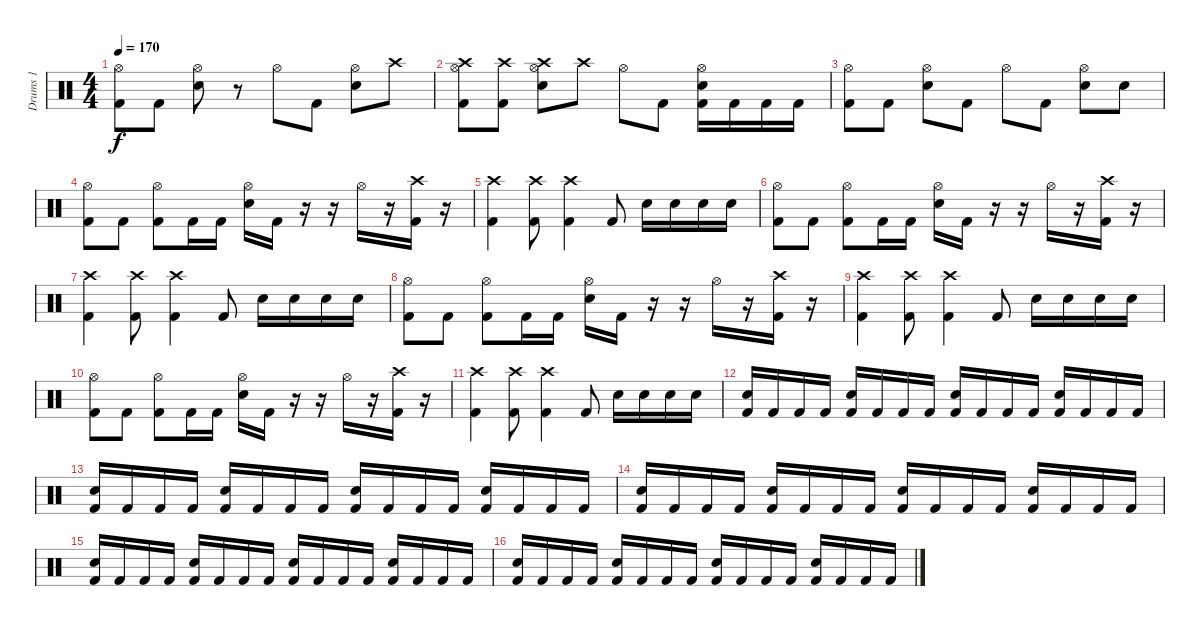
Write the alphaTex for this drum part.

\track ("Drums 1" "Drums 1") {instrument percussion}
\staff {score}
\articulation defaults
\ts (4 4)
\tempo 170
\clef neutral
\ks c
("Hi-Hat (open)" "Kick (hit) 2").8{dy f} "Kick (hit) 2".8 ("Hi-Hat (open)" "Electric Snare (hit)").8 r.8 "Hi-Hat (open)".8 "Kick (hit) 2".8 ("Hi-Hat (open)" "Electric Snare (hit)").8 "Crash high (hit)".8 |
("Crash high (hit)" "Hi-Hat (open)" "Kick (hit) 2").8 ("Crash high (hit)" "Kick (hit) 2").8 ("Crash high (hit)" "Hi-Hat (open)" "Electric Snare (hit)").8 "Crash high (hit)".8 "Hi-Hat (open)".8 "Kick (hit) 2".8 ("Hi-Hat (open)" "Electric Snare (hit)" "Kick (hit) 2").16 "Kick (hit) 2".16 "Kick (hit) 2".16 "Kick (hit) 2".16 |
("Hi-Hat (open)" "Kick (hit) 2").8 "Kick (hit) 2".8 ("Hi-Hat (open)" "Electric Snare (hit)").8 "Kick (hit) 2".8 "Hi-Hat (open)".8 "Kick (hit) 2".8 ("Hi-Hat (open)" "Electric Snare (hit)").8 "Electric Snare (hit)".8 |
("Hi-Hat (open)" "Kick (hit) 2").8 "Kick (hit) 2".8 ("Hi-Hat (open)" "Kick (hit) 2").8 "Kick (hit) 2".16 "Kick (hit) 2".16 ("Hi-Hat (open)" "Electric Snare (hit)").16 "Kick (hit) 2".16 r.16 r.16 "Hi-Hat (open)".16 r.16 ("Crash high (hit)" "Kick (hit) 2").16 r.16 |
("Crash high (hit)" "Kick (hit) 2").4 ("Crash high (hit)" "Kick (hit) 2").8 ("Crash high (hit)" "Kick (hit) 2").4 "Kick (hit) 2".8 "Electric Snare (hit)".16 "Electric Snare (hit)".16 "Electric Snare (hit)".16 "Electric Snare (hit)".16 |
("Hi-Hat (open)" "Kick (hit) 2").8 "Kick (hit) 2".8 ("Hi-Hat (open)" "Kick (hit) 2").8 "Kick (hit) 2".16 "Kick (hit) 2".16 ("Hi-Hat (open)" "Electric Snare (hit)").16 "Kick (hit) 2".16 r.16 r.16 "Hi-Hat (open)".16 r.16 ("Crash high (hit)" "Kick (hit) 2").16 r.16 |
("Crash high (hit)" "Kick (hit) 2").4 ("Crash high (hit)" "Kick (hit) 2").8 ("Crash high (hit)" "Kick (hit) 2").4 "Kick (hit) 2".8 "Electric Snare (hit)".16 "Electric Snare (hit)".16 "Electric Snare (hit)".16 "Electric Snare (hit)".16 |
("Hi-Hat (open)" "Kick (hit) 2").8 "Kick (hit) 2".8 ("Hi-Hat (open)" "Kick (hit) 2").8 "Kick (hit) 2".16 "Kick (hit) 2".16 ("Hi-Hat (open)" "Electric Snare (hit)").16 "Kick (hit) 2".16 r.16 r.16 "Hi-Hat (open)".16 r.16 ("Crash high (hit)" "Kick (hit) 2").16 r.16 |
("Crash high (hit)" "Kick (hit) 2").4 ("Crash high (hit)" "Kick (hit) 2").8 ("Crash high (hit)" "Kick (hit) 2").4 "Kick (hit) 2".8 "Electric Snare (hit)".16 "Electric Snare (hit)".16 "Electric Snare (hit)".16 "Electric Snare (hit)".16 |
("Hi-Hat (open)" "Kick (hit) 2").8 "Kick (hit) 2".8 ("Hi-Hat (open)" "Kick (hit) 2").8 "Kick (hit) 2".16 "Kick (hit) 2".16 ("Hi-Hat (open)" "Electric Snare (hit)").16 "Kick (hit) 2".16 r.16 r.16 "Hi-Hat (open)".16 r.16 ("Crash high (hit)" "Kick (hit) 2").16 r.16 |
("Crash high (hit)" "Kick (hit) 2").4 ("Crash high (hit)" "Kick (hit) 2").8 ("Crash high (hit)" "Kick (hit) 2").4 "Kick (hit) 2".8 "Electric Snare (hit)".16 "Electric Snare (hit)".16 "Electric Snare (hit)".16 "Electric Snare (hit)".16 |
("Snare (hit) 2" "Kick (hit) 2").16 "Kick (hit) 2".16 "Kick (hit) 2".16 "Kick (hit) 2".16 ("Snare (hit) 2" "Kick (hit) 2").16 "Kick (hit) 2".16 "Kick (hit) 2".16 "Kick (hit) 2".16 ("Snare (hit) 2" "Kick (hit) 2").16 "Kick (hit) 2".16 "Kick (hit) 2".16 "Kick (hit) 2".16 ("Snare (hit) 2" "Kick (hit) 2").16 "Kick (hit) 2".16 "Kick (hit) 2".16 "Kick (hit) 2".16 |
("Snare (hit) 2" "Kick (hit) 2").16 "Kick (hit) 2".16 "Kick (hit) 2".16 "Kick (hit) 2".16 ("Snare (hit) 2" "Kick (hit) 2").16 "Kick (hit) 2".16 "Kick (hit) 2".16 "Kick (hit) 2".16 ("Snare (hit) 2" "Kick (hit) 2").16 "Kick (hit) 2".16 "Kick (hit) 2".16 "Kick (hit) 2".16 ("Snare (hit) 2" "Kick (hit) 2").16 "Kick (hit) 2".16 "Kick (hit) 2".16 "Kick (hit) 2".16 |
("Snare (hit) 2" "Kick (hit) 2").16 "Kick (hit) 2".16 "Kick (hit) 2".16 "Kick (hit) 2".16 ("Snare (hit) 2" "Kick (hit) 2").16 "Kick (hit) 2".16 "Kick (hit) 2".16 "Kick (hit) 2".16 ("Snare (hit) 2" "Kick (hit) 2").16 "Kick (hit) 2".16 "Kick (hit) 2".16 "Kick (hit) 2".16 ("Snare (hit) 2" "Kick (hit) 2").16 "Kick (hit) 2".16 "Kick (hit) 2".16 "Kick (hit) 2".16 |
("Snare (hit) 2" "Kick (hit) 2").16 "Kick (hit) 2".16 "Kick (hit) 2".16 "Kick (hit) 2".16 ("Snare (hit) 2" "Kick (hit) 2").16 "Kick (hit) 2".16 "Kick (hit) 2".16 "Kick (hit) 2".16 ("Snare (hit) 2" "Kick (hit) 2").16 "Kick (hit) 2".16 "Kick (hit) 2".16 "Kick (hit) 2".16 ("Snare (hit) 2" "Kick (hit) 2").16 "Kick (hit) 2".16 "Kick (hit) 2".16 "Kick (hit) 2".16 |
("Snare (hit) 2" "Kick (hit) 2").16 "Kick (hit) 2".16 "Kick (hit) 2".16 "Kick (hit) 2".16 ("Snare (hit) 2" "Kick (hit) 2").16 "Kick (hit) 2".16 "Kick (hit) 2".16 "Kick (hit) 2".16 ("Snare (hit) 2" "Kick (hit) 2").16 "Kick (hit) 2".16 "Kick (hit) 2".16 "Kick (hit) 2".16 ("Snare (hit) 2" "Kick (hit) 2").16 "Kick (hit) 2".16 "Kick (hit) 2".16 "Kick (hit) 2".16
